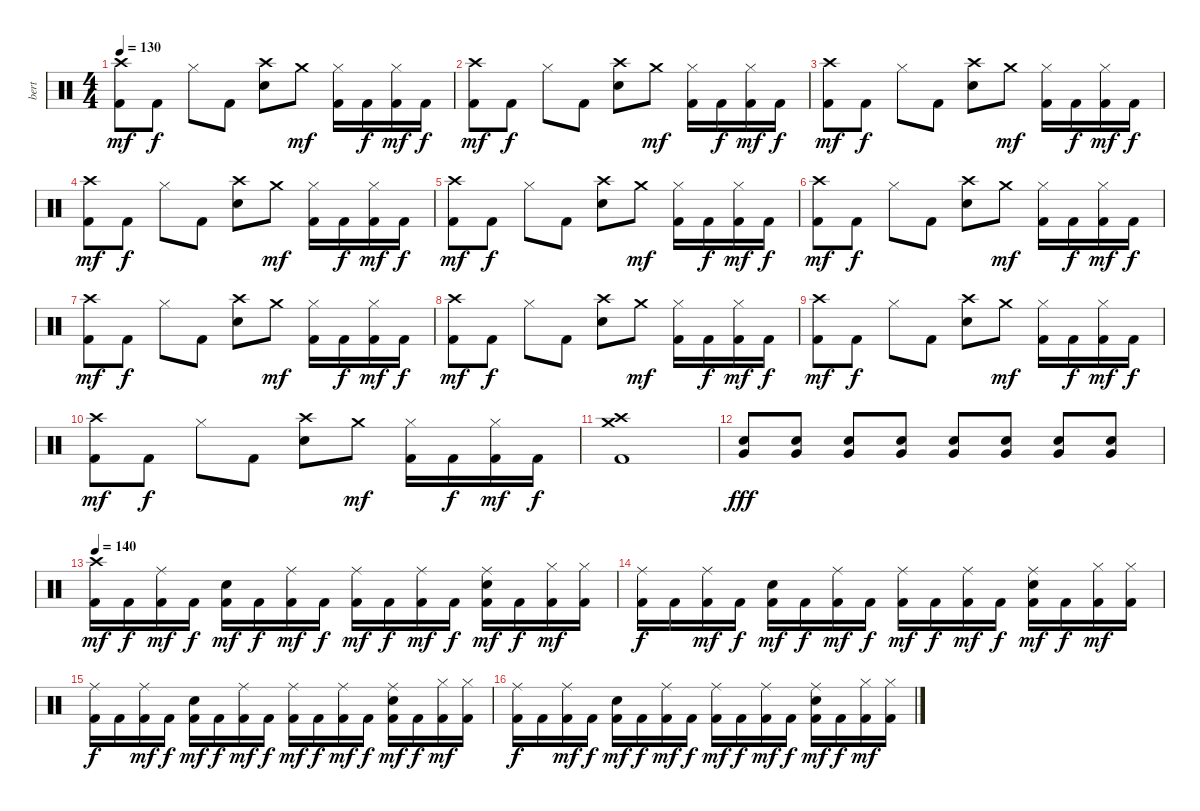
\track ("bert" "bert") {instrument percussion}
\staff {score}
\articulation defaults
\ts (4 4)
\tempo 130
\clef neutral
\ks c
("Crash high (hit)" "Kick (hit) 2").8{dy mf} "Kick (hit) 2".8{dy f} "Hi-Hat (closed)".8 "Kick (hit) 2".8 ("Crash high (hit)" "Snare (hit) 2").8 "Crash medium (hit)".8{dy mf} ("Hi-Hat (closed)" "Kick (hit) 2").16 "Kick (hit) 2".16{dy f} ("Hi-Hat (closed)" "Kick (hit) 2").16{dy mf} "Kick (hit) 2".16{dy f} |
("Crash high (hit)" "Kick (hit) 2").8{dy mf} "Kick (hit) 2".8{dy f} "Hi-Hat (closed)".8 "Kick (hit) 2".8 ("Crash high (hit)" "Snare (hit) 2").8 "Crash medium (hit)".8{dy mf} ("Hi-Hat (closed)" "Kick (hit) 2").16 "Kick (hit) 2".16{dy f} ("Hi-Hat (closed)" "Kick (hit) 2").16{dy mf} "Kick (hit) 2".16{dy f} |
("Crash high (hit)" "Kick (hit) 2").8{dy mf} "Kick (hit) 2".8{dy f} "Hi-Hat (closed)".8 "Kick (hit) 2".8 ("Crash high (hit)" "Snare (hit) 2").8 "Crash medium (hit)".8{dy mf} ("Hi-Hat (closed)" "Kick (hit) 2").16 "Kick (hit) 2".16{dy f} ("Hi-Hat (closed)" "Kick (hit) 2").16{dy mf} "Kick (hit) 2".16{dy f} |
("Crash high (hit)" "Kick (hit) 2").8{dy mf} "Kick (hit) 2".8{dy f} "Hi-Hat (closed)".8 "Kick (hit) 2".8 ("Crash high (hit)" "Snare (hit) 2").8 "Crash medium (hit)".8{dy mf} ("Hi-Hat (closed)" "Kick (hit) 2").16 "Kick (hit) 2".16{dy f} ("Hi-Hat (closed)" "Kick (hit) 2").16{dy mf} "Kick (hit) 2".16{dy f} |
("Crash high (hit)" "Kick (hit) 2").8{dy mf} "Kick (hit) 2".8{dy f} "Hi-Hat (closed)".8 "Kick (hit) 2".8 ("Crash high (hit)" "Snare (hit) 2").8 "Crash medium (hit)".8{dy mf} ("Hi-Hat (closed)" "Kick (hit) 2").16 "Kick (hit) 2".16{dy f} ("Hi-Hat (closed)" "Kick (hit) 2").16{dy mf} "Kick (hit) 2".16{dy f} |
("Crash high (hit)" "Kick (hit) 2").8{dy mf} "Kick (hit) 2".8{dy f} "Hi-Hat (closed)".8 "Kick (hit) 2".8 ("Crash high (hit)" "Snare (hit) 2").8 "Crash medium (hit)".8{dy mf} ("Hi-Hat (closed)" "Kick (hit) 2").16 "Kick (hit) 2".16{dy f} ("Hi-Hat (closed)" "Kick (hit) 2").16{dy mf} "Kick (hit) 2".16{dy f} |
("Crash high (hit)" "Kick (hit) 2").8{dy mf} "Kick (hit) 2".8{dy f} "Hi-Hat (closed)".8 "Kick (hit) 2".8 ("Crash high (hit)" "Snare (hit) 2").8 "Crash medium (hit)".8{dy mf} ("Hi-Hat (closed)" "Kick (hit) 2").16 "Kick (hit) 2".16{dy f} ("Hi-Hat (closed)" "Kick (hit) 2").16{dy mf} "Kick (hit) 2".16{dy f} |
("Crash high (hit)" "Kick (hit) 2").8{dy mf} "Kick (hit) 2".8{dy f} "Hi-Hat (closed)".8 "Kick (hit) 2".8 ("Crash high (hit)" "Snare (hit) 2").8 "Crash medium (hit)".8{dy mf} ("Hi-Hat (closed)" "Kick (hit) 2").16 "Kick (hit) 2".16{dy f} ("Hi-Hat (closed)" "Kick (hit) 2").16{dy mf} "Kick (hit) 2".16{dy f} |
("Crash high (hit)" "Kick (hit) 2").8{dy mf} "Kick (hit) 2".8{dy f} "Hi-Hat (closed)".8 "Kick (hit) 2".8 ("Crash high (hit)" "Snare (hit) 2").8 "Crash medium (hit)".8{dy mf} ("Hi-Hat (closed)" "Kick (hit) 2").16 "Kick (hit) 2".16{dy f} ("Hi-Hat (closed)" "Kick (hit) 2").16{dy mf} "Kick (hit) 2".16{dy f} |
("Crash high (hit)" "Kick (hit) 2").8{dy mf} "Kick (hit) 2".8{dy f} "Hi-Hat (closed)".8 "Kick (hit) 2".8 ("Crash high (hit)" "Snare (hit) 2").8 "Crash medium (hit)".8{dy mf} ("Hi-Hat (closed)" "Kick (hit) 2").16 "Kick (hit) 2".16{dy f} ("Hi-Hat (closed)" "Kick (hit) 2").16{dy mf} "Kick (hit) 2".16{dy f} |
("Crash medium (hit)" "Crash high (hit)" "Kick (hit) 2").1 |
("Snare (hit) 2" "Very Low Tom (hit)").8{dy fff} ("Snare (hit) 2" "Very Low Tom (hit)").8 ("Snare (hit) 2" "Very Low Tom (hit)").8 ("Snare (hit) 2" "Very Low Tom (hit)").8 ("Snare (hit) 2" "Very Low Tom (hit)").8 ("Snare (hit) 2" "Very Low Tom (hit)").8 ("Snare (hit) 2" "Very Low Tom (hit)").8 ("Snare (hit) 2" "Very Low Tom (hit)").8 |
\tempo 140
("Crash high (hit)" "Kick (hit) 2").16{dy mf} "Kick (hit) 2".16{dy f} ("Ride (middle)" "Kick (hit) 2").16{dy mf} "Kick (hit) 2".16{dy f} ("Snare (hit) 2" "Kick (hit) 2").16{dy mf} "Kick (hit) 2".16{dy f} ("Ride (middle)" "Kick (hit) 2").16{dy mf} "Kick (hit) 2".16{dy f} ("Ride (middle)" "Kick (hit) 2").16{dy mf} "Kick (hit) 2".16{dy f} ("Ride (middle)" "Kick (hit) 2").16{dy mf} "Kick (hit) 2".16{dy f} ("Ride (middle)" "Snare (hit) 2" "Kick (hit) 2").16{dy mf} "Kick (hit) 2".16{dy f} ("Hi-Hat (closed)" "Kick (hit) 2").16{dy mf} ("Hi-Hat (closed)" "Kick (hit) 2").16 |
("Ride (middle)" "Kick (hit) 2").16{dy f} "Kick (hit) 2".16 ("Ride (middle)" "Kick (hit) 2").16{dy mf} "Kick (hit) 2".16{dy f} ("Snare (hit) 2" "Kick (hit) 2").16{dy mf} "Kick (hit) 2".16{dy f} ("Ride (middle)" "Kick (hit) 2").16{dy mf} "Kick (hit) 2".16{dy f} ("Ride (middle)" "Kick (hit) 2").16{dy mf} "Kick (hit) 2".16{dy f} ("Ride (middle)" "Kick (hit) 2").16{dy mf} "Kick (hit) 2".16{dy f} ("Ride (middle)" "Snare (hit) 2" "Kick (hit) 2").16{dy mf} "Kick (hit) 2".16{dy f} ("Hi-Hat (closed)" "Kick (hit) 2").16{dy mf} ("Hi-Hat (closed)" "Kick (hit) 2").16 |
("Ride (middle)" "Kick (hit) 2").16{dy f} "Kick (hit) 2".16 ("Ride (middle)" "Kick (hit) 2").16{dy mf} "Kick (hit) 2".16{dy f} ("Snare (hit) 2" "Kick (hit) 2").16{dy mf} "Kick (hit) 2".16{dy f} ("Ride (middle)" "Kick (hit) 2").16{dy mf} "Kick (hit) 2".16{dy f} ("Ride (middle)" "Kick (hit) 2").16{dy mf} "Kick (hit) 2".16{dy f} ("Ride (middle)" "Kick (hit) 2").16{dy mf} "Kick (hit) 2".16{dy f} ("Ride (middle)" "Snare (hit) 2" "Kick (hit) 2").16{dy mf} "Kick (hit) 2".16{dy f} ("Hi-Hat (closed)" "Kick (hit) 2").16{dy mf} ("Hi-Hat (closed)" "Kick (hit) 2").16 |
("Ride (middle)" "Kick (hit) 2").16{dy f} "Kick (hit) 2".16 ("Ride (middle)" "Kick (hit) 2").16{dy mf} "Kick (hit) 2".16{dy f} ("Snare (hit) 2" "Kick (hit) 2").16{dy mf} "Kick (hit) 2".16{dy f} ("Ride (middle)" "Kick (hit) 2").16{dy mf} "Kick (hit) 2".16{dy f} ("Ride (middle)" "Kick (hit) 2").16{dy mf} "Kick (hit) 2".16{dy f} ("Ride (middle)" "Kick (hit) 2").16{dy mf} "Kick (hit) 2".16{dy f} ("Ride (middle)" "Snare (hit) 2" "Kick (hit) 2").16{dy mf} "Kick (hit) 2".16{dy f} ("Hi-Hat (closed)" "Kick (hit) 2").16{dy mf} ("Hi-Hat (closed)" "Kick (hit) 2").16
